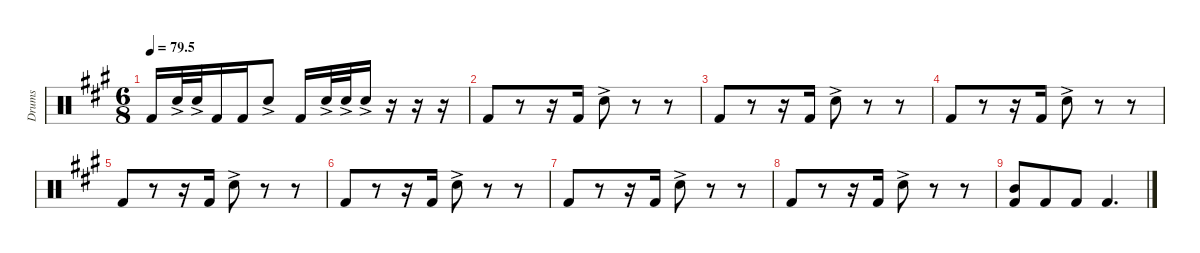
\defaultSystemsLayout 4
\hideDynamics
\bracketExtendMode nobrackets
\otherSystemsTrackNameOrientation horizontal
\track ("F&S" "Drums") {instrument percussion}
\staff {score}
\articulation defaults
\ts (6 8)
\tempo
79.5
\accidentals auto
\clef neutral
\ottava regular
\simile none
\scale
0.333333
\ks a "Kick (hit) 2"{acc forcenatural}.16{dy f} "Snare (hit) 2"{ac acc forcenatural}.32 "Snare (hit) 2"{ac acc forcenatural}.32 "Kick (hit) 2"{acc forcenatural}.16 "Kick (hit) 2"{acc forcenatural}.16 "Snare (hit) 2"{ac acc forcenatural}.8 "Kick (hit) 2"{acc forcenatural}.16 "Snare (hit) 2"{ac acc forcenatural}.32 "Snare (hit) 2"{ac acc forcenatural}.32 "Snare (hit) 2"{ac acc forcenatural}.16
r.16 r.16 r.16 |
\scale
0.333333 "Kick (hit) 2"{acc forcenatural}.8 r.8 r.16 "Kick (hit) 2"{acc forcenatural}.16 "Snare (hit) 2"{ac acc forcenatural}.8 r.8 r.8 |
\scale
0.333333 "Kick (hit) 2"{acc forcenatural}.8 r.8 r.16 "Kick (hit) 2"{acc forcenatural}.16 "Snare (hit) 2"{ac acc forcenatural}.8 r.8 r.8 |
\scale
0.333333 "Kick (hit) 2"{acc forcenatural}.8 r.8 r.16 "Kick (hit) 2"{acc forcenatural}.16 "Snare (hit) 2"{ac acc forcenatural}.8 r.8 r.8 |
\scale
0.333333 "Kick (hit) 2"{acc forcenatural}.8 r.8 r.16 "Kick (hit) 2"{acc forcenatural}.16 "Snare (hit) 2"{ac acc forcenatural}.8 r.8 r.8 |
\scale
0.333333 "Kick (hit) 2"{acc forcenatural}.8 r.8 r.16 "Kick (hit) 2"{acc forcenatural}.16 "Snare (hit) 2"{ac acc forcenatural}.8 r.8 r.8 |
\scale
0.333333 "Kick (hit) 2"{acc forcenatural}.8 r.8 r.16 "Kick (hit) 2"{acc forcenatural}.16 "Snare (hit) 2"{ac acc forcenatural}.8 r.8 r.8 |
\scale
0.333333 "Kick (hit) 2"{acc forcenatural}.8 r.8 r.16 "Kick (hit) 2"{acc forcenatural}.16 "Snare (hit) 2"{ac acc forcenatural}.8 r.8 r.8 |
\scale
0.333333 ("Mid Tom (hit)"{acc forcenatural} "Kick (hit) 2"{acc forcenatural}).8 "Kick (hit) 2"{acc forcenatural}.8 "Kick (hit) 2"{acc forcenatural}.8 "Kick (hit) 2"{acc forcenatural}.4{d} |
\scale
0.333333 |
\scale
0.333333 |
\scale
0.333333
